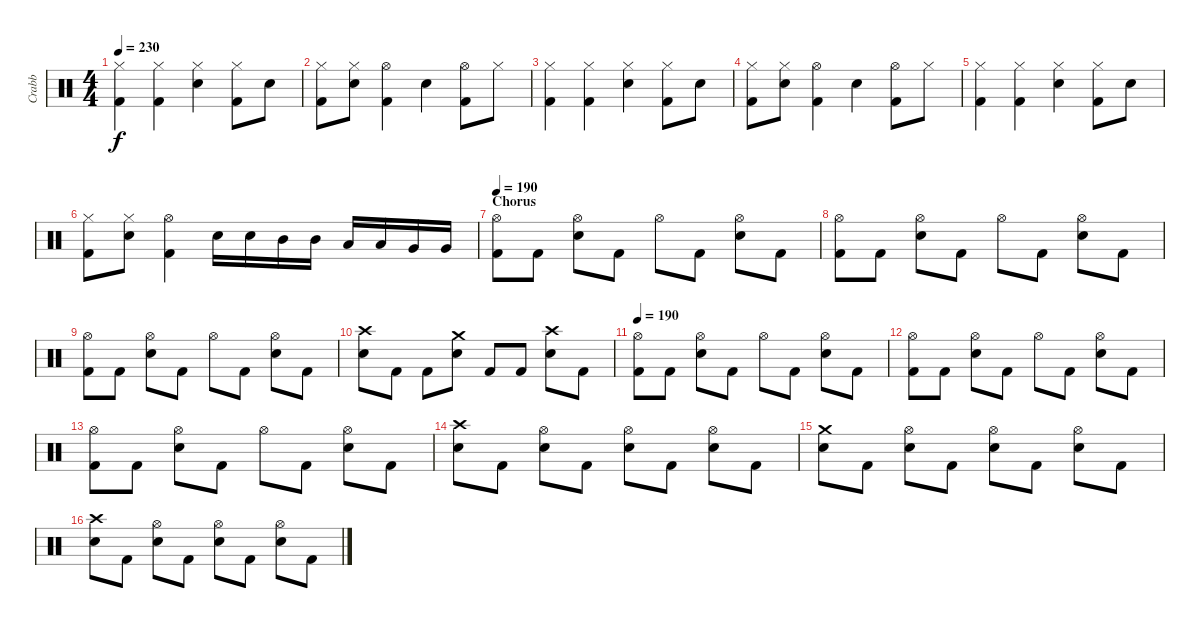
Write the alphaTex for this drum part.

\track ("Crabb" "Crabb") {instrument percussion}
\staff {score}
\articulation defaults
\ts (4 4)
\tempo 230
\clef neutral
\ks c
("Hi-Hat (closed)" "Kick (hit) 2").4{dy f} ("Hi-Hat (closed)" "Kick (hit) 2").4 ("Hi-Hat (closed)" "Electric Snare (hit)").4 ("Hi-Hat (closed)" "Kick (hit) 2").8 "Electric Snare (hit)".8 |
("Hi-Hat (closed)" "Kick (hit) 2").8 ("Hi-Hat (closed)" "Electric Snare (hit)").8 ("Hi-Hat (open)" "Kick (hit) 2").4 "Electric Snare (hit)".4 ("Hi-Hat (open)" "Kick (hit) 2").8 "Hi-Hat (closed)".8 |
("Hi-Hat (closed)" "Kick (hit) 2").4 ("Hi-Hat (closed)" "Kick (hit) 2").4 ("Hi-Hat (closed)" "Electric Snare (hit)").4 ("Hi-Hat (closed)" "Kick (hit) 2").8 "Electric Snare (hit)".8 |
("Hi-Hat (closed)" "Kick (hit) 2").8 ("Hi-Hat (closed)" "Electric Snare (hit)").8 ("Hi-Hat (open)" "Kick (hit) 2").4 "Electric Snare (hit)".4 ("Hi-Hat (open)" "Kick (hit) 2").8 "Hi-Hat (closed)".8 |
("Hi-Hat (closed)" "Kick (hit) 2").4 ("Hi-Hat (closed)" "Kick (hit) 2").4 ("Hi-Hat (closed)" "Electric Snare (hit)").4 ("Hi-Hat (closed)" "Kick (hit) 2").8 "Electric Snare (hit)".8 |
("Hi-Hat (closed)" "Kick (hit) 2").8 ("Hi-Hat (closed)" "Electric Snare (hit)").8 ("Hi-Hat (open)" "Kick (hit) 2").4 "Electric Snare (hit)".16 "Electric Snare (hit)".16 "Mid Tom (hit)".16 "Mid Tom (hit)".16 "Low Tom (hit)".16 "Low Tom (hit)".16 "Very Low Tom (hit)".16 "Very Low Tom (hit)".16 |
\section ("" "Chorus")
\tempo 210
\tempo 190
("Hi-Hat (open)" "Kick (hit) 2").8 "Kick (hit) 2".8 ("Hi-Hat (open)" "Electric Snare (hit)").8 "Kick (hit) 2".8 "Hi-Hat (open)".8 "Kick (hit) 2".8 ("Hi-Hat (open)" "Electric Snare (hit)").8 "Kick (hit) 2".8 |
("Hi-Hat (open)" "Kick (hit) 2").8 "Kick (hit) 2".8 ("Hi-Hat (open)" "Electric Snare (hit)").8 "Kick (hit) 2".8 "Hi-Hat (open)".8 "Kick (hit) 2".8 ("Hi-Hat (open)" "Electric Snare (hit)").8 "Kick (hit) 2".8 |
("Hi-Hat (open)" "Kick (hit) 2").8 "Kick (hit) 2".8 ("Hi-Hat (open)" "Electric Snare (hit)").8 "Kick (hit) 2".8 "Hi-Hat (open)".8 "Kick (hit) 2".8 ("Hi-Hat (open)" "Electric Snare (hit)").8 "Kick (hit) 2".8 |
("Crash high (hit)" "Electric Snare (hit)").8 "Kick (hit) 2".8 "Kick (hit) 2".8 ("Crash medium (hit)" "Electric Snare (hit)").8 "Kick (hit) 2".8 "Kick (hit) 2".8 ("Crash high (hit)" "Electric Snare (hit)").8 "Kick (hit) 2".8 |
\tempo 190
("Hi-Hat (open)" "Kick (hit) 2").8 "Kick (hit) 2".8 ("Hi-Hat (open)" "Electric Snare (hit)").8 "Kick (hit) 2".8 "Hi-Hat (open)".8 "Kick (hit) 2".8 ("Hi-Hat (open)" "Electric Snare (hit)").8 "Kick (hit) 2".8 |
("Hi-Hat (open)" "Kick (hit) 2").8 "Kick (hit) 2".8 ("Hi-Hat (open)" "Electric Snare (hit)").8 "Kick (hit) 2".8 "Hi-Hat (open)".8 "Kick (hit) 2".8 ("Hi-Hat (open)" "Electric Snare (hit)").8 "Kick (hit) 2".8 |
("Hi-Hat (open)" "Kick (hit) 2").8 "Kick (hit) 2".8 ("Hi-Hat (open)" "Electric Snare (hit)").8 "Kick (hit) 2".8 "Hi-Hat (open)".8 "Kick (hit) 2".8 ("Hi-Hat (open)" "Electric Snare (hit)").8 "Kick (hit) 2".8 |
("Crash high (hit)" "Electric Snare (hit)").8 "Kick (hit) 2".8 ("Hi-Hat (open)" "Electric Snare (hit)").8 "Kick (hit) 2".8 ("Hi-Hat (open)" "Electric Snare (hit)").8 "Kick (hit) 2".8 ("Hi-Hat (open)" "Electric Snare (hit)").8 "Kick (hit) 2".8 |
("Crash medium (hit)" "Electric Snare (hit)").8 "Kick (hit) 2".8 ("Hi-Hat (open)" "Electric Snare (hit)").8 "Kick (hit) 2".8 ("Hi-Hat (open)" "Electric Snare (hit)").8 "Kick (hit) 2".8 ("Hi-Hat (open)" "Electric Snare (hit)").8 "Kick (hit) 2".8 |
("Crash high (hit)" "Electric Snare (hit)").8 "Kick (hit) 2".8 ("Hi-Hat (open)" "Electric Snare (hit)").8 "Kick (hit) 2".8 ("Hi-Hat (open)" "Electric Snare (hit)").8 "Kick (hit) 2".8 ("Hi-Hat (open)" "Electric Snare (hit)").8 "Kick (hit) 2".8
